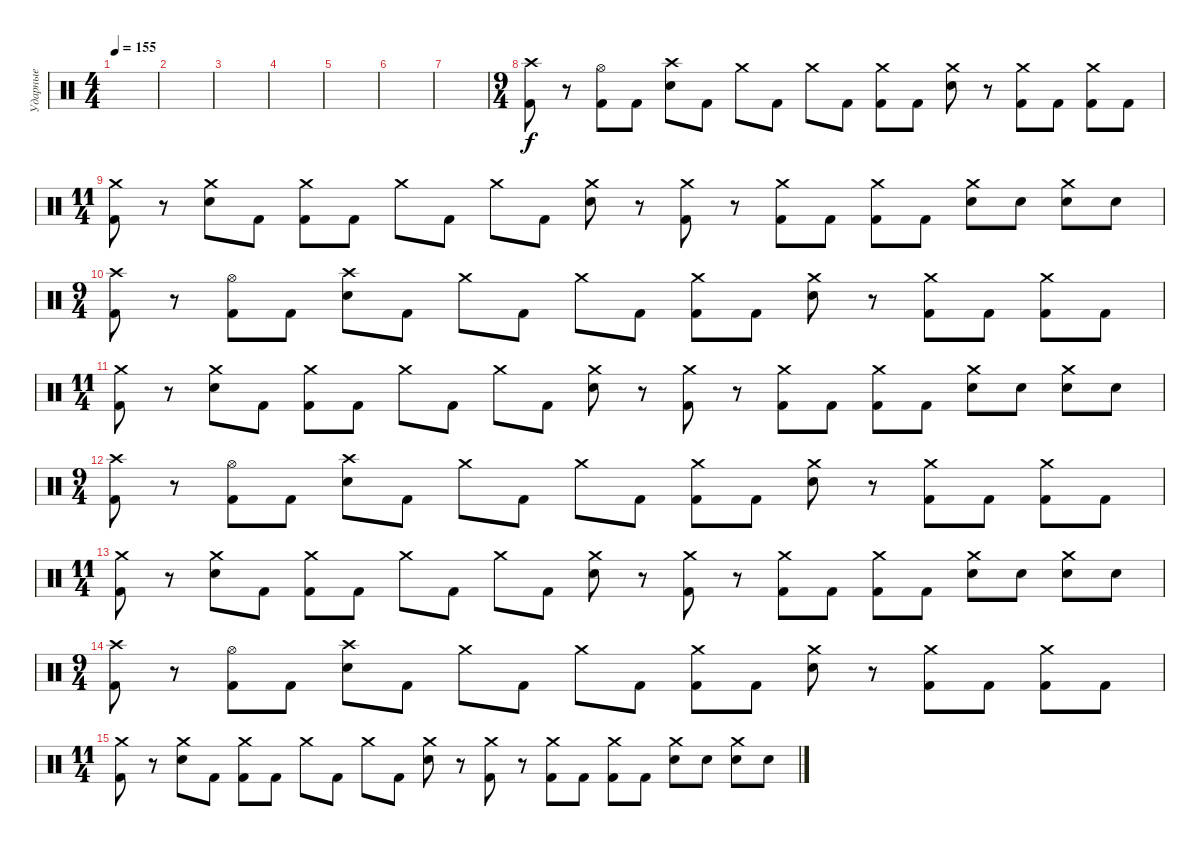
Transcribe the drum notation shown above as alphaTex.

\track ("Ударные" "Ударные") {instrument percussion}
\staff {score}
\articulation defaults
\ts (4 4)
\tempo 155
\clef neutral
\ks c
|
|
|
|
|
|
|
\ts (9 4)
("Crash high (hit)" "Kick (hit) 2").8 r.8 ("Hi-Hat (open)" "Kick (hit) 2").8 "Kick (hit) 2".8 ("Crash high (hit)" "Snare (hit) 2").8 "Kick (hit) 2".8 "Crash medium (hit)".8 "Kick (hit) 2".8 "Crash medium (hit)".8 "Kick (hit) 2".8 ("Crash medium (hit)" "Kick (hit) 2").8 "Kick (hit) 2".8 ("Crash medium (hit)" "Snare (hit) 2").8 r.8 ("Crash medium (hit)" "Kick (hit) 2").8 "Kick (hit) 2".8 ("Crash medium (hit)" "Kick (hit) 2").8 "Kick (hit) 2".8 |
\ts (11 4)
("Crash medium (hit)" "Kick (hit) 2").8 r.8 ("Crash medium (hit)" "Snare (hit) 2").8 "Kick (hit) 2".8 ("Crash medium (hit)" "Kick (hit) 2").8 "Kick (hit) 2".8 "Crash medium (hit)".8 "Kick (hit) 2".8 "Crash medium (hit)".8 "Kick (hit) 2".8 ("Crash medium (hit)" "Snare (hit) 2").8 r.8 ("Crash medium (hit)" "Kick (hit) 2").8 r.8 ("Crash medium (hit)" "Kick (hit) 2").8 "Kick (hit) 2".8 ("Crash medium (hit)" "Kick (hit) 2").8 "Kick (hit) 2".8 ("Crash medium (hit)" "Snare (hit) 2").8 "Snare (hit) 2".8 ("Crash medium (hit)" "Snare (hit) 2").8 "Snare (hit) 2".8 |
\ts (9 4)
("Crash high (hit)" "Kick (hit) 2").8 r.8 ("Hi-Hat (open)" "Kick (hit) 2").8 "Kick (hit) 2".8 ("Crash high (hit)" "Snare (hit) 2").8 "Kick (hit) 2".8 "Crash medium (hit)".8 "Kick (hit) 2".8 "Crash medium (hit)".8 "Kick (hit) 2".8 ("Crash medium (hit)" "Kick (hit) 2").8 "Kick (hit) 2".8 ("Crash medium (hit)" "Snare (hit) 2").8 r.8 ("Crash medium (hit)" "Kick (hit) 2").8 "Kick (hit) 2".8 ("Crash medium (hit)" "Kick (hit) 2").8 "Kick (hit) 2".8 |
\ts (11 4)
("Crash medium (hit)" "Kick (hit) 2").8 r.8 ("Crash medium (hit)" "Snare (hit) 2").8 "Kick (hit) 2".8 ("Crash medium (hit)" "Kick (hit) 2").8 "Kick (hit) 2".8 "Crash medium (hit)".8 "Kick (hit) 2".8 "Crash medium (hit)".8 "Kick (hit) 2".8 ("Crash medium (hit)" "Snare (hit) 2").8 r.8 ("Crash medium (hit)" "Kick (hit) 2").8 r.8 ("Crash medium (hit)" "Kick (hit) 2").8 "Kick (hit) 2".8 ("Crash medium (hit)" "Kick (hit) 2").8 "Kick (hit) 2".8 ("Crash medium (hit)" "Snare (hit) 2").8 "Snare (hit) 2".8 ("Crash medium (hit)" "Snare (hit) 2").8 "Snare (hit) 2".8 |
\ts (9 4)
("Crash high (hit)" "Kick (hit) 2").8 r.8 ("Hi-Hat (open)" "Kick (hit) 2").8 "Kick (hit) 2".8 ("Crash high (hit)" "Snare (hit) 2").8 "Kick (hit) 2".8 "Crash medium (hit)".8 "Kick (hit) 2".8 "Crash medium (hit)".8 "Kick (hit) 2".8 ("Crash medium (hit)" "Kick (hit) 2").8 "Kick (hit) 2".8 ("Crash medium (hit)" "Snare (hit) 2").8 r.8 ("Crash medium (hit)" "Kick (hit) 2").8 "Kick (hit) 2".8 ("Crash medium (hit)" "Kick (hit) 2").8 "Kick (hit) 2".8 |
\ts (11 4)
("Crash medium (hit)" "Kick (hit) 2").8 r.8 ("Crash medium (hit)" "Snare (hit) 2").8 "Kick (hit) 2".8 ("Crash medium (hit)" "Kick (hit) 2").8 "Kick (hit) 2".8 "Crash medium (hit)".8 "Kick (hit) 2".8 "Crash medium (hit)".8 "Kick (hit) 2".8 ("Crash medium (hit)" "Snare (hit) 2").8 r.8 ("Crash medium (hit)" "Kick (hit) 2").8 r.8 ("Crash medium (hit)" "Kick (hit) 2").8 "Kick (hit) 2".8 ("Crash medium (hit)" "Kick (hit) 2").8 "Kick (hit) 2".8 ("Crash medium (hit)" "Snare (hit) 2").8 "Snare (hit) 2".8 ("Crash medium (hit)" "Snare (hit) 2").8 "Snare (hit) 2".8 |
\ts (9 4)
("Crash high (hit)" "Kick (hit) 2").8 r.8 ("Hi-Hat (open)" "Kick (hit) 2").8 "Kick (hit) 2".8 ("Crash high (hit)" "Snare (hit) 2").8 "Kick (hit) 2".8 "Crash medium (hit)".8 "Kick (hit) 2".8 "Crash medium (hit)".8 "Kick (hit) 2".8 ("Crash medium (hit)" "Kick (hit) 2").8 "Kick (hit) 2".8 ("Crash medium (hit)" "Snare (hit) 2").8 r.8 ("Crash medium (hit)" "Kick (hit) 2").8 "Kick (hit) 2".8 ("Crash medium (hit)" "Kick (hit) 2").8 "Kick (hit) 2".8 |
\ts (11 4)
("Crash medium (hit)" "Kick (hit) 2").8 r.8 ("Crash medium (hit)" "Snare (hit) 2").8 "Kick (hit) 2".8 ("Crash medium (hit)" "Kick (hit) 2").8 "Kick (hit) 2".8 "Crash medium (hit)".8 "Kick (hit) 2".8 "Crash medium (hit)".8 "Kick (hit) 2".8 ("Crash medium (hit)" "Snare (hit) 2").8 r.8 ("Crash medium (hit)" "Kick (hit) 2").8 r.8 ("Crash medium (hit)" "Kick (hit) 2").8 "Kick (hit) 2".8 ("Crash medium (hit)" "Kick (hit) 2").8 "Kick (hit) 2".8 ("Crash medium (hit)" "Snare (hit) 2").8 "Snare (hit) 2".8 ("Crash medium (hit)" "Snare (hit) 2").8 "Snare (hit) 2".8
